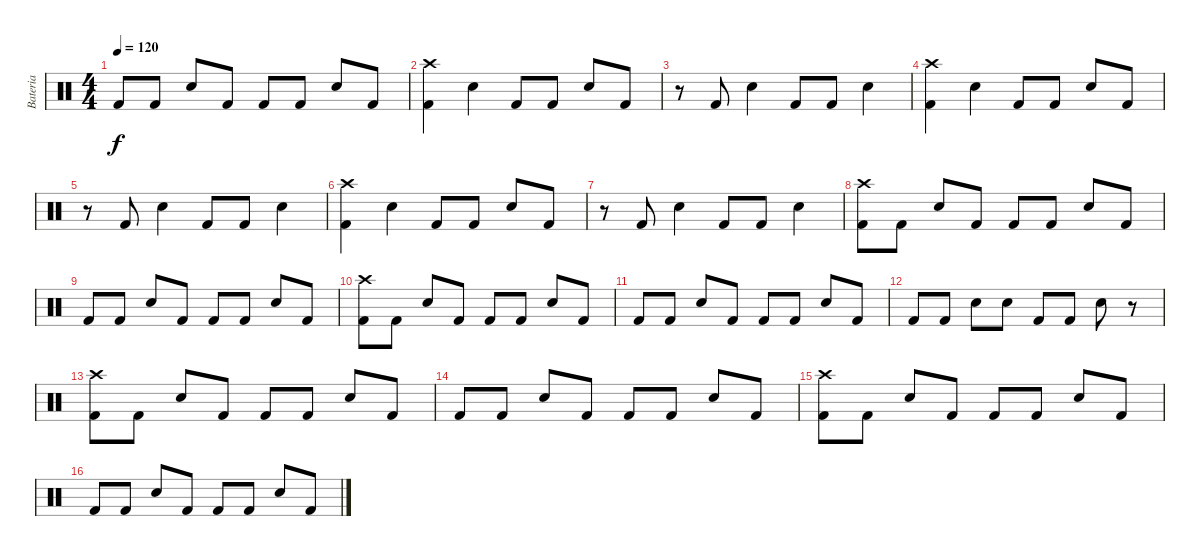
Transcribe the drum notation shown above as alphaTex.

\track ("Bateria" "Bateria") {instrument percussion}
\staff {score}
\articulation defaults
\ts (4 4)
\tempo 120
\clef neutral
\ks c "Kick (hit) 2".8{dy f} "Kick (hit) 2".8 "Snare (hit) 2".8 "Kick (hit) 2".8 "Kick (hit) 2".8 "Kick (hit) 2".8 "Snare (hit) 2".8 "Kick (hit) 2".8
|
("Kick (hit) 2" "Crash high (hit)").4 "Snare (hit) 2".4 "Kick (hit) 2".8 "Kick (hit) 2".8 "Snare (hit) 2".8 "Kick (hit) 2".8 |
r.8 "Kick (hit) 2".8 "Snare (hit) 2".4 "Kick (hit) 2".8 "Kick (hit) 2".8 "Snare (hit) 2".4 |
("Kick (hit) 2" "Crash high (hit)").4 "Snare (hit) 2".4 "Kick (hit) 2".8 "Kick (hit) 2".8 "Snare (hit) 2".8 "Kick (hit) 2".8 |
r.8 "Kick (hit) 2".8 "Snare (hit) 2".4 "Kick (hit) 2".8 "Kick (hit) 2".8 "Snare (hit) 2".4 |
("Kick (hit) 2" "Crash high (hit)").4 "Snare (hit) 2".4 "Kick (hit) 2".8 "Kick (hit) 2".8 "Snare (hit) 2".8 "Kick (hit) 2".8 |
r.8 "Kick (hit) 2".8 "Snare (hit) 2".4 "Kick (hit) 2".8 "Kick (hit) 2".8 "Snare (hit) 2".4 |
("Kick (hit) 2" "Crash high (hit)").8 "Kick (hit) 2".8 "Snare (hit) 2".8 "Kick (hit) 2".8 "Kick (hit) 2".8 "Kick (hit) 2".8 "Snare (hit) 2".8 "Kick (hit) 2".8 |
"Kick (hit) 2".8 "Kick (hit) 2".8 "Snare (hit) 2".8 "Kick (hit) 2".8 "Kick (hit) 2".8 "Kick (hit) 2".8 "Snare (hit) 2".8 "Kick (hit) 2".8 |
("Kick (hit) 2" "Crash high (hit)").8 "Kick (hit) 2".8 "Snare (hit) 2".8 "Kick (hit) 2".8 "Kick (hit) 2".8 "Kick (hit) 2".8 "Snare (hit) 2".8 "Kick (hit) 2".8 |
"Kick (hit) 2".8 "Kick (hit) 2".8 "Snare (hit) 2".8 "Kick (hit) 2".8 "Kick (hit) 2".8 "Kick (hit) 2".8 "Snare (hit) 2".8 "Kick (hit) 2".8 |
"Kick (hit) 2".8 "Kick (hit) 2".8 "Snare (hit) 2".8 "Snare (hit) 2".8 "Kick (hit) 2".8 "Kick (hit) 2".8 "Snare (hit) 2".8 r.8 |
("Kick (hit) 2" "Crash high (hit)").8 "Kick (hit) 2".8 "Snare (hit) 2".8 "Kick (hit) 2".8 "Kick (hit) 2".8 "Kick (hit) 2".8 "Snare (hit) 2".8 "Kick (hit) 2".8 |
"Kick (hit) 2".8 "Kick (hit) 2".8 "Snare (hit) 2".8 "Kick (hit) 2".8 "Kick (hit) 2".8 "Kick (hit) 2".8 "Snare (hit) 2".8 "Kick (hit) 2".8 |
("Kick (hit) 2" "Crash high (hit)").8 "Kick (hit) 2".8 "Snare (hit) 2".8 "Kick (hit) 2".8 "Kick (hit) 2".8 "Kick (hit) 2".8 "Snare (hit) 2".8 "Kick (hit) 2".8 |
"Kick (hit) 2".8 "Kick (hit) 2".8 "Snare (hit) 2".8 "Kick (hit) 2".8 "Kick (hit) 2".8 "Kick (hit) 2".8 "Snare (hit) 2".8 "Kick (hit) 2".8
